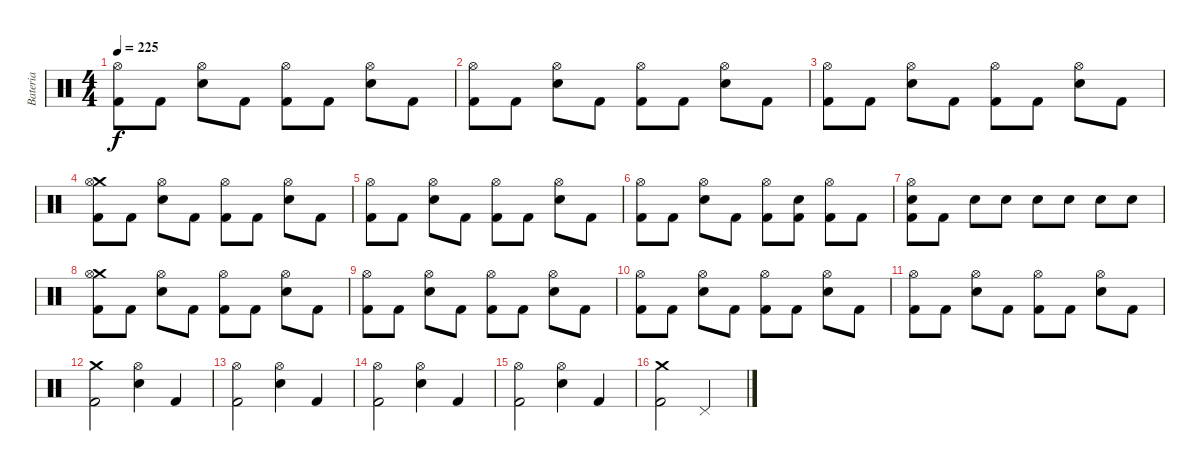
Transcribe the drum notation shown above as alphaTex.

\track ("Bateria" "Bateria") {instrument percussion}
\staff {score}
\articulation defaults
\ts (4 4)
\tempo 225
\clef neutral
\ks c
("Hi-Hat (open)" "Kick (hit) 2").8{dy f} "Kick (hit) 2".8 ("Hi-Hat (open)" "Snare (hit) 2").8 "Kick (hit) 2".8 ("Hi-Hat (open)" "Kick (hit) 2").8 "Kick (hit) 2".8 ("Hi-Hat (open)" "Snare (hit) 2").8 "Kick (hit) 2".8 |
("Hi-Hat (open)" "Kick (hit) 2").8 "Kick (hit) 2".8 ("Hi-Hat (open)" "Snare (hit) 2").8 "Kick (hit) 2".8 ("Hi-Hat (open)" "Kick (hit) 2").8 "Kick (hit) 2".8 ("Hi-Hat (open)" "Snare (hit) 2").8 "Kick (hit) 2".8 |
("Hi-Hat (open)" "Kick (hit) 2").8 "Kick (hit) 2".8 ("Hi-Hat (open)" "Snare (hit) 2").8 "Kick (hit) 2".8 ("Hi-Hat (open)" "Kick (hit) 2").8 "Kick (hit) 2".8 ("Hi-Hat (open)" "Snare (hit) 2").8 "Kick (hit) 2".8 |
("Crash medium (hit)" "Hi-Hat (open)" "Kick (hit) 2").8 "Kick (hit) 2".8 ("Hi-Hat (open)" "Snare (hit) 2").8 "Kick (hit) 2".8 ("Hi-Hat (open)" "Kick (hit) 2").8 "Kick (hit) 2".8 ("Hi-Hat (open)" "Snare (hit) 2").8 "Kick (hit) 2".8 |
("Hi-Hat (open)" "Kick (hit) 2").8 "Kick (hit) 2".8 ("Hi-Hat (open)" "Snare (hit) 2").8 "Kick (hit) 2".8 ("Hi-Hat (open)" "Kick (hit) 2").8 "Kick (hit) 2".8 ("Hi-Hat (open)" "Snare (hit) 2").8 "Kick (hit) 2".8 |
("Hi-Hat (open)" "Kick (hit) 2").8 "Kick (hit) 2".8 ("Hi-Hat (open)" "Snare (hit) 2").8 "Kick (hit) 2".8 ("Hi-Hat (open)" "Kick (hit) 2").8 ("Snare (hit) 2" "Kick (hit) 2").8 ("Hi-Hat (open)" "Kick (hit) 2").8 "Kick (hit) 2".8 |
("Snare (hit) 2" "Hi-Hat (open)" "Kick (hit) 2").8 "Kick (hit) 2".8 "Snare (hit) 2".8 "Snare (hit) 2".8 "Snare (hit) 2".8 "Snare (hit) 2".8 "Snare (hit) 2".8 "Snare (hit) 2".8 |
("Crash medium (hit)" "Hi-Hat (open)" "Kick (hit) 2").8 "Kick (hit) 2".8 ("Hi-Hat (open)" "Snare (hit) 2").8 "Kick (hit) 2".8 ("Hi-Hat (open)" "Kick (hit) 2").8 "Kick (hit) 2".8 ("Hi-Hat (open)" "Snare (hit) 2").8 "Kick (hit) 2".8 |
("Hi-Hat (open)" "Kick (hit) 2").8 "Kick (hit) 2".8 ("Hi-Hat (open)" "Snare (hit) 2").8 "Kick (hit) 2".8 ("Hi-Hat (open)" "Kick (hit) 2").8 "Kick (hit) 2".8 ("Hi-Hat (open)" "Snare (hit) 2").8 "Kick (hit) 2".8 |
("Hi-Hat (open)" "Kick (hit) 2").8 "Kick (hit) 2".8 ("Hi-Hat (open)" "Snare (hit) 2").8 "Kick (hit) 2".8 ("Hi-Hat (open)" "Kick (hit) 2").8 "Kick (hit) 2".8 ("Hi-Hat (open)" "Snare (hit) 2").8 "Kick (hit) 2".8 |
("Hi-Hat (open)" "Kick (hit) 2").8 "Kick (hit) 2".8 ("Hi-Hat (open)" "Snare (hit) 2").8 "Kick (hit) 2".8 ("Hi-Hat (open)" "Kick (hit) 2").8 "Kick (hit) 2".8 ("Hi-Hat (open)" "Snare (hit) 2").8 "Kick (hit) 2".8 |
("Kick (hit) 2" "Crash medium (hit)").2 ("Snare (hit) 2" "Hi-Hat (open)").4 "Kick (hit) 2".4 |
("Kick (hit) 2" "Hi-Hat (open)").2 ("Snare (hit) 2" "Hi-Hat (open)").4 "Kick (hit) 2".4 |
("Kick (hit) 2" "Hi-Hat (open)").2 ("Snare (hit) 2" "Hi-Hat (open)").4 "Kick (hit) 2".4 |
("Kick (hit) 2" "Hi-Hat (open)").2 ("Snare (hit) 2" "Hi-Hat (open)").4 "Kick (hit) 2".4 |
("Crash medium (hit)" "Kick (hit) 2").2 "Pedal Hi-Hat (hit)".2
